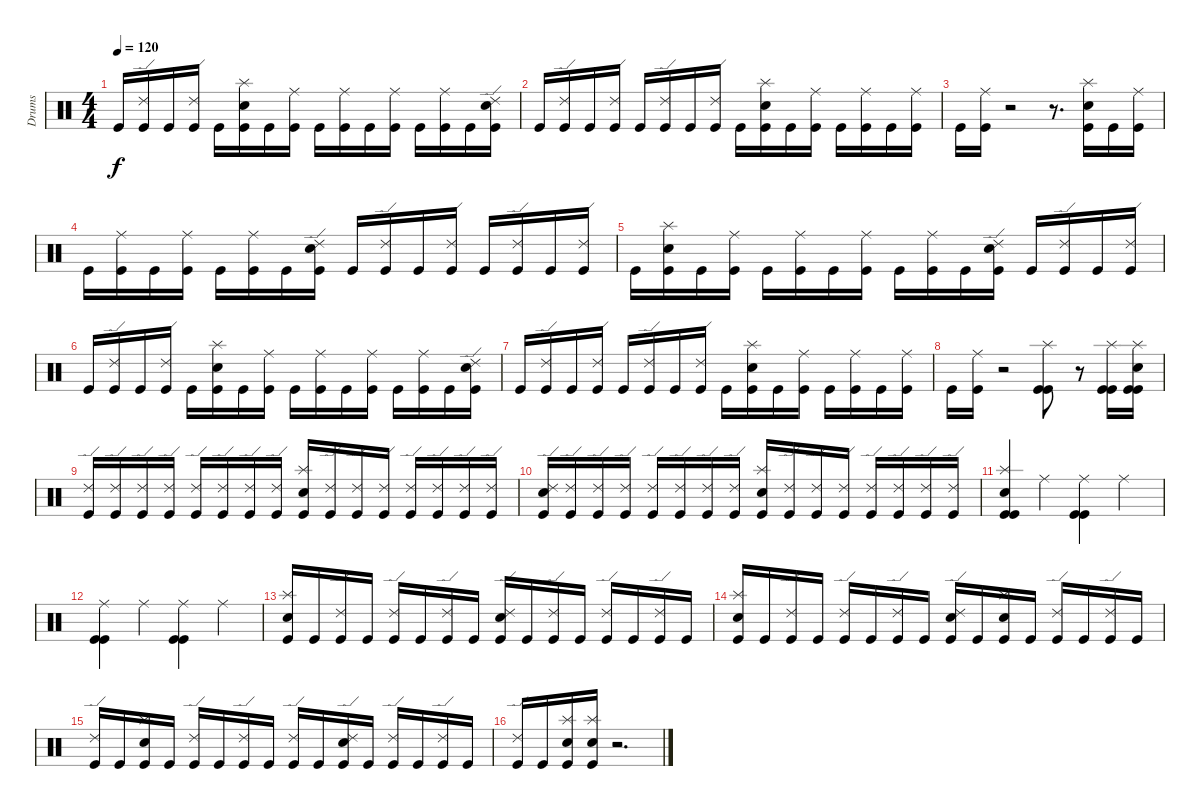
\track ("Drums" "Drums") {instrument percussion}
\staff {score}
\articulation defaults
\ts (4 4)
\tempo 120
\clef neutral
\ks c "Kick (hit)".16{dy f}
("Ride (edge) 2" "Kick (hit)").16 "Kick (hit)".16 ("Ride (edge) 2" "Kick (hit)").16 "Kick (hit)".16 ("Splash (hit)" "Electric Snare (hit)" "Kick (hit)").16 "Kick (hit)".16 ("Ride (middle)" "Kick (hit)").16 "Kick (hit)".16 ("Ride (middle)" "Kick (hit)").16 "Kick (hit)".16 ("Ride (middle)" "Kick (hit)").16 "Kick (hit)".16 ("Ride (middle)" "Kick (hit)").16 "Kick (hit)".16 ("Ride (edge) 2" "Electric Snare (hit)" "Kick (hit)").16 |
"Kick (hit)".16 ("Ride (edge) 2" "Kick (hit)").16 "Kick (hit)".16 ("Ride (edge) 2" "Kick (hit)").16 "Kick (hit)".16 ("Ride (edge) 2" "Kick (hit)").16 "Kick (hit)".16 ("Ride (edge) 2" "Kick (hit)").16 "Kick (hit)".16 ("Splash (hit)" "Electric Snare (hit)" "Kick (hit)").16 "Kick (hit)".16 ("Ride (middle)" "Kick (hit)").16 "Kick (hit)".16 ("Ride (middle)" "Kick (hit)").16 "Kick (hit)".16 ("Ride (middle)" "Kick (hit)").16 |
"Kick (hit)".16 ("Ride (middle)" "Kick (hit)").16 r.2 r.8{d} ("Splash (hit)" "Electric Snare (hit)" "Kick (hit)").16 "Kick (hit)".16 ("Ride (middle)" "Kick (hit)").16 |
"Kick (hit)".16 ("Ride (middle)" "Kick (hit)").16 "Kick (hit)".16 ("Ride (middle)" "Kick (hit)").16 "Kick (hit)".16 ("Ride (middle)" "Kick (hit)").16 "Kick (hit)".16 ("Ride (edge) 2" "Electric Snare (hit)" "Kick (hit)").16 "Kick (hit)".16 ("Ride (edge) 2" "Kick (hit)").16 "Kick (hit)".16 ("Ride (edge) 2" "Kick (hit)").16 "Kick (hit)".16 ("Ride (edge) 2" "Kick (hit)").16 "Kick (hit)".16 ("Ride (edge) 2" "Kick (hit)").16 |
"Kick (hit)".16 ("Splash (hit)" "Electric Snare (hit)" "Kick (hit)").16 "Kick (hit)".16 ("Ride (middle)" "Kick (hit)").16 "Kick (hit)".16 ("Ride (middle)" "Kick (hit)").16 "Kick (hit)".16 ("Ride (middle)" "Kick (hit)").16 "Kick (hit)".16 ("Ride (middle)" "Kick (hit)").16 "Kick (hit)".16 ("Ride (edge) 2" "Electric Snare (hit)" "Kick (hit)").16 "Kick (hit)".16 ("Ride (edge) 2" "Kick (hit)").16 "Kick (hit)".16 ("Ride (edge) 2" "Kick (hit)").16 |
"Kick (hit)".16 ("Ride (edge) 2" "Kick (hit)").16 "Kick (hit)".16 ("Ride (edge) 2" "Kick (hit)").16 "Kick (hit)".16 ("Splash (hit)" "Electric Snare (hit)" "Kick (hit)").16 "Kick (hit)".16 ("Ride (middle)" "Kick (hit)").16 "Kick (hit)".16 ("Ride (middle)" "Kick (hit)").16 "Kick (hit)".16 ("Ride (middle)" "Kick (hit)").16 "Kick (hit)".16 ("Ride (middle)" "Kick (hit)").16 "Kick (hit)".16 ("Ride (edge) 2" "Electric Snare (hit)" "Kick (hit)").16 |
"Kick (hit)".16 ("Ride (edge) 2" "Kick (hit)").16 "Kick (hit)".16 ("Ride (edge) 2" "Kick (hit)").16 "Kick (hit)".16 ("Ride (edge) 2" "Kick (hit)").16 "Kick (hit)".16 ("Ride (edge) 2" "Kick (hit)").16 "Kick (hit)".16 ("Splash (hit)" "Electric Snare (hit)" "Kick (hit)").16 "Kick (hit)".16 ("Ride (middle)" "Kick (hit)").16 "Kick (hit)".16 ("Ride (middle)" "Kick (hit)").16 "Kick (hit)".16 ("Ride (middle)" "Kick (hit)").16 |
"Kick (hit)".16 ("Ride (middle)" "Kick (hit)").16 r.2 ("Splash (hit)" "Kick (hit)" "Kick (hit)").8 r.8 ("Splash (hit)" "Kick (hit)" "Kick (hit)").16 ("Splash (hit)" "Electric Snare (hit)" "Kick (hit)" "Kick (hit)").16 |
("Ride (edge) 2" "Kick (hit)").16 ("Ride (edge) 2" "Kick (hit)").16 ("Ride (edge) 2" "Kick (hit)").16 ("Ride (edge) 2" "Kick (hit)").16 ("Ride (edge) 2" "Kick (hit)").16 ("Ride (edge) 2" "Kick (hit)").16 ("Ride (edge) 2" "Kick (hit)").16 ("Ride (edge) 2" "Kick (hit)").16 ("Splash (hit)" "Electric Snare (hit)" "Kick (hit)").16 ("Ride (edge) 2" "Kick (hit)").16 ("Ride (edge) 2" "Kick (hit)").16 ("Ride (edge) 2" "Kick (hit)").16 ("Ride (edge) 2" "Kick (hit)").16 ("Ride (edge) 2" "Kick (hit)").16 ("Ride (edge) 2" "Kick (hit)").16 ("Ride (edge) 2" "Kick (hit)").16 |
("Ride (edge) 2" "Electric Snare (hit)" "Kick (hit)").16 ("Ride (edge) 2" "Kick (hit)").16 ("Ride (edge) 2" "Kick (hit)").16 ("Ride (edge) 2" "Kick (hit)").16 ("Ride (edge) 2" "Kick (hit)").16 ("Ride (edge) 2" "Kick (hit)").16 ("Ride (edge) 2" "Kick (hit)").16 ("Ride (edge) 2" "Kick (hit)").16 ("Splash (hit)" "Electric Snare (hit)" "Kick (hit)").16 ("Ride (edge) 2" "Kick (hit)").16 ("Ride (edge) 2" "Kick (hit)").16 ("Ride (edge) 2" "Kick (hit)").16 ("Ride (edge) 2" "Kick (hit)").16 ("Ride (edge) 2" "Kick (hit)").16 ("Ride (edge) 2" "Kick (hit)").16 ("Ride (edge) 2" "Kick (hit)").16 |
("Splash (hit)" "Electric Snare (hit)" "Kick (hit)" "Kick (hit)").4 "Ride (middle)".4 ("Ride (middle)" "Kick (hit)" "Kick (hit)").4 "Ride (middle)".4 |
("Ride (middle)" "Kick (hit)" "Kick (hit)").4 "Ride (middle)".4 ("Ride (middle)" "Kick (hit)" "Kick (hit)").4 "Ride (middle)".4 |
("Splash (hit)" "Electric Snare (hit)" "Kick (hit)").16 "Kick (hit)".16 ("Ride (edge) 2" "Kick (hit)").16 "Kick (hit)".16 ("Ride (edge) 2" "Kick (hit)").16 "Kick (hit)".16 ("Ride (edge) 2" "Kick (hit)").16 "Kick (hit)".16 ("Ride (edge) 2" "Electric Snare (hit)" "Kick (hit)").16 "Kick (hit)".16 ("Ride (edge) 2" "Kick (hit)").16 "Kick (hit)".16 ("Ride (edge) 2" "Kick (hit)").16 "Kick (hit)".16 ("Ride (edge) 2" "Kick (hit)").16 "Kick (hit)".16 |
("Splash (hit)" "Electric Snare (hit)" "Kick (hit)").16 "Kick (hit)".16 ("Ride (edge) 2" "Kick (hit)").16 "Kick (hit)".16 ("Ride (edge) 2" "Kick (hit)").16 "Kick (hit)".16 ("Ride (edge) 2" "Kick (hit)").16 "Kick (hit)".16 ("Ride (edge) 2" "Electric Snare (hit)" "Kick (hit)").16 "Kick (hit)".16 ("Splash (hit)" "Electric Snare (hit)" "Kick (hit)").16 "Kick (hit)".16 ("Ride (edge) 2" "Kick (hit)").16 "Kick (hit)".16 ("Ride (edge) 2" "Kick (hit)").16 "Kick (hit)".16 |
("Ride (edge) 2" "Kick (hit)").16 "Kick (hit)".16 ("Splash (hit)" "Electric Snare (hit)" "Kick (hit)").16 "Kick (hit)".16 ("Ride (edge) 2" "Kick (hit)").16 "Kick (hit)".16 ("Ride (edge) 2" "Kick (hit)").16 "Kick (hit)".16 ("Ride (edge) 2" "Kick (hit)").16 "Kick (hit)".16 ("Ride (edge) 2" "Electric Snare (hit)" "Kick (hit)").16 "Kick (hit)".16 ("Ride (edge) 2" "Kick (hit)").16 "Kick (hit)".16 ("Ride (edge) 2" "Kick (hit)").16 "Kick (hit)".16 |
("Ride (edge) 2" "Kick (hit)").16 "Kick (hit)".16 ("Splash (hit)" "Electric Snare (hit)" "Kick (hit)").16 ("Splash (hit)" "Electric Snare (hit)" "Kick (hit)").16 r.2{d}
